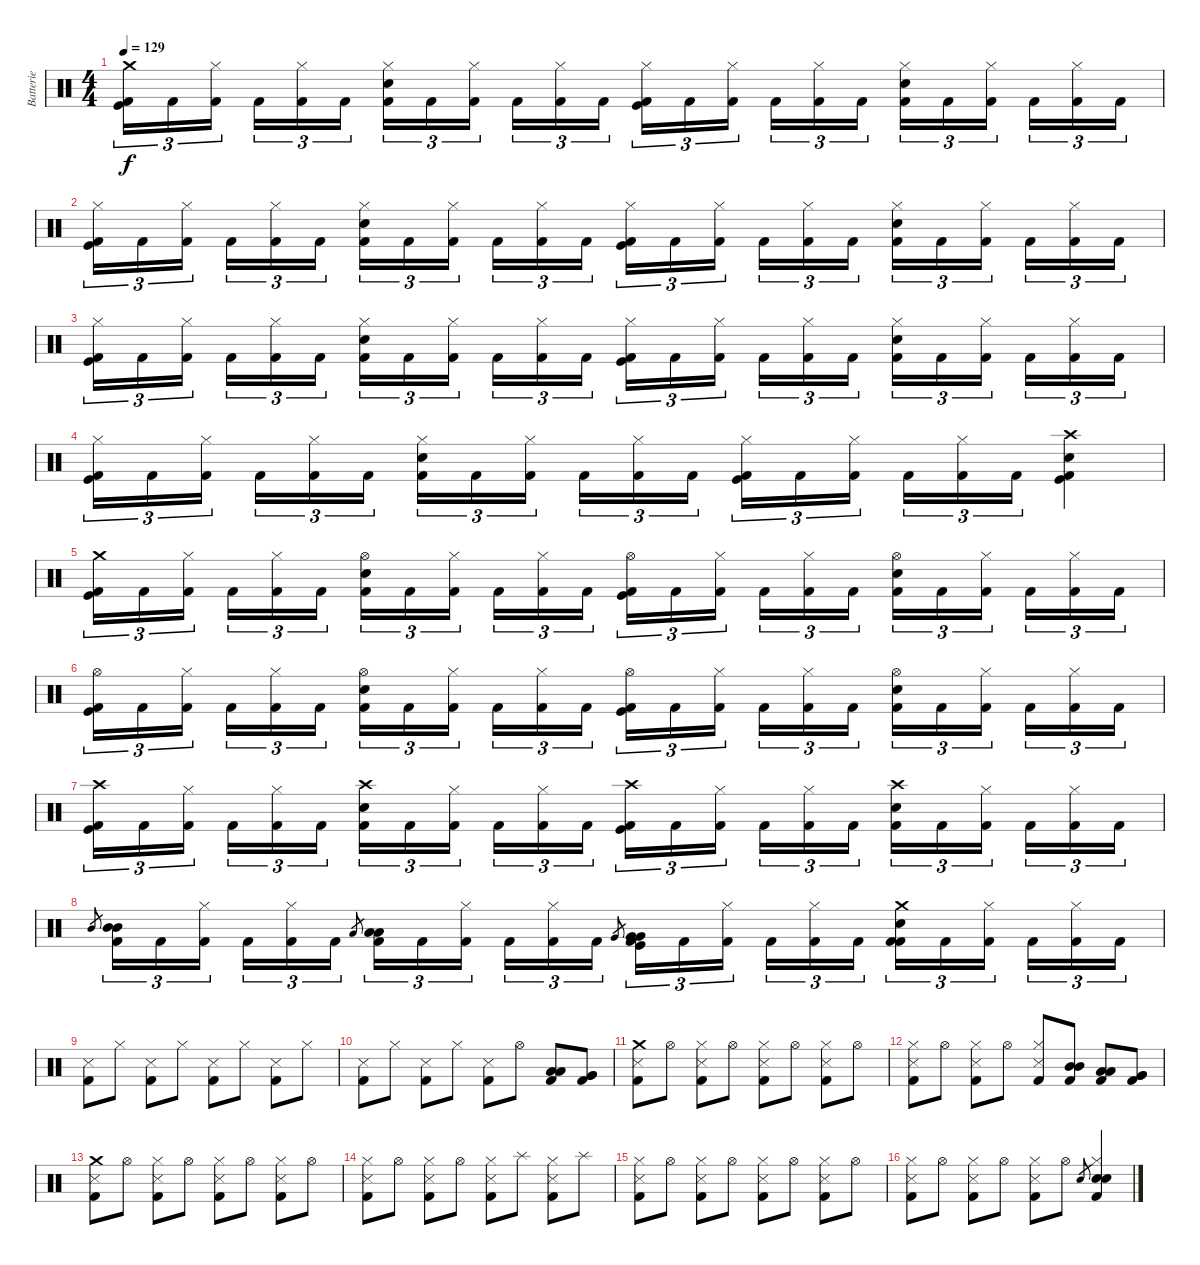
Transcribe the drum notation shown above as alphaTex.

\track ("Batterie" "Batterie") {instrument percussion}
\staff {score}
\articulation defaults
\ts (4 4)
\tempo 129
\clef neutral
\ks c
("Crash medium (hit)" "Kick (hit)" "Kick (hit) 2").16{tu (3 2) dy f} "Kick (hit) 2".16{tu (3 2)} ("Hi-Hat (closed)" "Kick (hit) 2").16{tu (3 2)} "Kick (hit) 2".16{tu (3 2)} ("Hi-Hat (closed)" "Kick (hit) 2").16{tu (3 2)} "Kick (hit) 2".16{tu (3 2)} ("Hi-Hat (closed)" "Electric Snare (hit)" "Kick (hit) 2").16{tu (3 2)} "Kick (hit) 2".16{tu (3 2)} ("Hi-Hat (closed)" "Kick (hit) 2").16{tu (3 2)} "Kick (hit) 2".16{tu (3 2)} ("Hi-Hat (closed)" "Kick (hit) 2").16{tu (3 2)} "Kick (hit) 2".16{tu (3 2)} ("Hi-Hat (closed)" "Kick (hit)" "Kick (hit) 2").16{tu (3 2)} "Kick (hit) 2".16{tu (3 2)} ("Hi-Hat (closed)" "Kick (hit) 2").16{tu (3 2)} "Kick (hit) 2".16{tu (3 2)} ("Hi-Hat (closed)" "Kick (hit) 2").16{tu (3 2)} "Kick (hit) 2".16{tu (3 2)} ("Hi-Hat (closed)" "Electric Snare (hit)" "Kick (hit) 2").16{tu (3 2)} "Kick (hit) 2".16{tu (3 2)} ("Hi-Hat (closed)" "Kick (hit) 2").16{tu (3 2)} "Kick (hit) 2".16{tu (3 2)} ("Hi-Hat (closed)" "Kick (hit) 2").16{tu (3 2)} "Kick (hit) 2".16{tu (3 2)} |
("Hi-Hat (closed)" "Kick (hit)" "Kick (hit) 2").16{tu (3 2)} "Kick (hit) 2".16{tu (3 2)} ("Hi-Hat (closed)" "Kick (hit) 2").16{tu (3 2)} "Kick (hit) 2".16{tu (3 2)} ("Hi-Hat (closed)" "Kick (hit) 2").16{tu (3 2)} "Kick (hit) 2".16{tu (3 2)} ("Hi-Hat (closed)" "Electric Snare (hit)" "Kick (hit) 2").16{tu (3 2)} "Kick (hit) 2".16{tu (3 2)} ("Hi-Hat (closed)" "Kick (hit) 2").16{tu (3 2)} "Kick (hit) 2".16{tu (3 2)} ("Hi-Hat (closed)" "Kick (hit) 2").16{tu (3 2)} "Kick (hit) 2".16{tu (3 2)} ("Hi-Hat (closed)" "Kick (hit)" "Kick (hit) 2").16{tu (3 2)} "Kick (hit) 2".16{tu (3 2)} ("Hi-Hat (closed)" "Kick (hit) 2").16{tu (3 2)} "Kick (hit) 2".16{tu (3 2)} ("Hi-Hat (closed)" "Kick (hit) 2").16{tu (3 2)} "Kick (hit) 2".16{tu (3 2)} ("Hi-Hat (closed)" "Electric Snare (hit)" "Kick (hit) 2").16{tu (3 2)} "Kick (hit) 2".16{tu (3 2)} ("Hi-Hat (closed)" "Kick (hit) 2").16{tu (3 2)} "Kick (hit) 2".16{tu (3 2)} ("Hi-Hat (closed)" "Kick (hit) 2").16{tu (3 2)} "Kick (hit) 2".16{tu (3 2)} |
("Hi-Hat (closed)" "Kick (hit)" "Kick (hit) 2").16{tu (3 2)} "Kick (hit) 2".16{tu (3 2)} ("Hi-Hat (closed)" "Kick (hit) 2").16{tu (3 2)} "Kick (hit) 2".16{tu (3 2)} ("Hi-Hat (closed)" "Kick (hit) 2").16{tu (3 2)} "Kick (hit) 2".16{tu (3 2)} ("Hi-Hat (closed)" "Electric Snare (hit)" "Kick (hit) 2").16{tu (3 2)} "Kick (hit) 2".16{tu (3 2)} ("Hi-Hat (closed)" "Kick (hit) 2").16{tu (3 2)} "Kick (hit) 2".16{tu (3 2)} ("Hi-Hat (closed)" "Kick (hit) 2").16{tu (3 2)} "Kick (hit) 2".16{tu (3 2)} ("Hi-Hat (closed)" "Kick (hit)" "Kick (hit) 2").16{tu (3 2)} "Kick (hit) 2".16{tu (3 2)} ("Hi-Hat (closed)" "Kick (hit) 2").16{tu (3 2)} "Kick (hit) 2".16{tu (3 2)} ("Hi-Hat (closed)" "Kick (hit) 2").16{tu (3 2)} "Kick (hit) 2".16{tu (3 2)} ("Hi-Hat (closed)" "Electric Snare (hit)" "Kick (hit) 2").16{tu (3 2)} "Kick (hit) 2".16{tu (3 2)} ("Hi-Hat (closed)" "Kick (hit) 2").16{tu (3 2)} "Kick (hit) 2".16{tu (3 2)} ("Hi-Hat (closed)" "Kick (hit) 2").16{tu (3 2)} "Kick (hit) 2".16{tu (3 2)} |
("Hi-Hat (closed)" "Kick (hit)" "Kick (hit) 2").16{tu (3 2)} "Kick (hit) 2".16{tu (3 2)} ("Hi-Hat (closed)" "Kick (hit) 2").16{tu (3 2)} "Kick (hit) 2".16{tu (3 2)} ("Hi-Hat (closed)" "Kick (hit) 2").16{tu (3 2)} "Kick (hit) 2".16{tu (3 2)} ("Hi-Hat (closed)" "Electric Snare (hit)" "Kick (hit) 2").16{tu (3 2)} "Kick (hit) 2".16{tu (3 2)} ("Hi-Hat (closed)" "Kick (hit) 2").16{tu (3 2)} "Kick (hit) 2".16{tu (3 2)} ("Hi-Hat (closed)" "Kick (hit) 2").16{tu (3 2)} "Kick (hit) 2".16{tu (3 2)} ("Hi-Hat (closed)" "Kick (hit)" "Kick (hit) 2").16{tu (3 2)} "Kick (hit) 2".16{tu (3 2)} ("Hi-Hat (closed)" "Kick (hit) 2").16{tu (3 2)} "Kick (hit) 2".16{tu (3 2)} ("Hi-Hat (closed)" "Kick (hit) 2").16{tu (3 2)} "Kick (hit) 2".16{tu (3 2)} ("Crash high (hit)" "Electric Snare (hit)" "Kick (hit)" "Kick (hit) 2").4 |
("Crash medium (hit)" "Kick (hit)" "Kick (hit) 2").16{tu (3 2)} "Kick (hit) 2".16{tu (3 2)} ("Hi-Hat (closed)" "Kick (hit) 2").16{tu (3 2)} "Kick (hit) 2".16{tu (3 2)} ("Hi-Hat (closed)" "Kick (hit) 2").16{tu (3 2)} "Kick (hit) 2".16{tu (3 2)} ("Hi-Hat (open)" "Electric Snare (hit)" "Kick (hit) 2").16{tu (3 2)} "Kick (hit) 2".16{tu (3 2)} ("Hi-Hat (closed)" "Kick (hit) 2").16{tu (3 2)} "Kick (hit) 2".16{tu (3 2)} ("Hi-Hat (closed)" "Kick (hit) 2").16{tu (3 2)} "Kick (hit) 2".16{tu (3 2)} ("Hi-Hat (open)" "Kick (hit)" "Kick (hit) 2").16{tu (3 2)} "Kick (hit) 2".16{tu (3 2)} ("Hi-Hat (closed)" "Kick (hit) 2").16{tu (3 2)} "Kick (hit) 2".16{tu (3 2)} ("Hi-Hat (closed)" "Kick (hit) 2").16{tu (3 2)} "Kick (hit) 2".16{tu (3 2)} ("Hi-Hat (open)" "Electric Snare (hit)" "Kick (hit) 2").16{tu (3 2)} "Kick (hit) 2".16{tu (3 2)} ("Hi-Hat (closed)" "Kick (hit) 2").16{tu (3 2)} "Kick (hit) 2".16{tu (3 2)} ("Hi-Hat (closed)" "Kick (hit) 2").16{tu (3 2)} "Kick (hit) 2".16{tu (3 2)} |
("Hi-Hat (open)" "Kick (hit)" "Kick (hit) 2").16{tu (3 2)} "Kick (hit) 2".16{tu (3 2)} ("Hi-Hat (closed)" "Kick (hit) 2").16{tu (3 2)} "Kick (hit) 2".16{tu (3 2)} ("Hi-Hat (closed)" "Kick (hit) 2").16{tu (3 2)} "Kick (hit) 2".16{tu (3 2)} ("Hi-Hat (open)" "Electric Snare (hit)" "Kick (hit) 2").16{tu (3 2)} "Kick (hit) 2".16{tu (3 2)} ("Hi-Hat (closed)" "Kick (hit) 2").16{tu (3 2)} "Kick (hit) 2".16{tu (3 2)} ("Hi-Hat (closed)" "Kick (hit) 2").16{tu (3 2)} "Kick (hit) 2".16{tu (3 2)} ("Hi-Hat (open)" "Kick (hit)" "Kick (hit) 2").16{tu (3 2)} "Kick (hit) 2".16{tu (3 2)} ("Hi-Hat (closed)" "Kick (hit) 2").16{tu (3 2)} "Kick (hit) 2".16{tu (3 2)} ("Hi-Hat (closed)" "Kick (hit) 2").16{tu (3 2)} "Kick (hit) 2".16{tu (3 2)} ("Hi-Hat (open)" "Electric Snare (hit)" "Kick (hit) 2").16{tu (3 2)} "Kick (hit) 2".16{tu (3 2)} ("Hi-Hat (closed)" "Kick (hit) 2").16{tu (3 2)} "Kick (hit) 2".16{tu (3 2)} ("Hi-Hat (closed)" "Kick (hit) 2").16{tu (3 2)} "Kick (hit) 2".16{tu (3 2)} |
("Crash high (hit)" "Kick (hit)" "Kick (hit) 2").16{tu (3 2)} "Kick (hit) 2".16{tu (3 2)} ("Hi-Hat (closed)" "Kick (hit) 2").16{tu (3 2)} "Kick (hit) 2".16{tu (3 2)} ("Hi-Hat (closed)" "Kick (hit) 2").16{tu (3 2)} "Kick (hit) 2".16{tu (3 2)} ("Crash high (hit)" "Electric Snare (hit)" "Kick (hit) 2").16{tu (3 2)} "Kick (hit) 2".16{tu (3 2)} ("Hi-Hat (closed)" "Kick (hit) 2").16{tu (3 2)} "Kick (hit) 2".16{tu (3 2)} ("Hi-Hat (closed)" "Kick (hit) 2").16{tu (3 2)} "Kick (hit) 2".16{tu (3 2)} ("Crash high (hit)" "Kick (hit)" "Kick (hit) 2").16{tu (3 2)} "Kick (hit) 2".16{tu (3 2)} ("Hi-Hat (closed)" "Kick (hit) 2").16{tu (3 2)} "Kick (hit) 2".16{tu (3 2)} ("Hi-Hat (closed)" "Kick (hit) 2").16{tu (3 2)} "Kick (hit) 2".16{tu (3 2)} ("Crash high (hit)" "Electric Snare (hit)" "Kick (hit) 2").16{tu (3 2)} "Kick (hit) 2".16{tu (3 2)} ("Hi-Hat (closed)" "Kick (hit) 2").16{tu (3 2)} "Kick (hit) 2".16{tu (3 2)} ("Hi-Hat (closed)" "Kick (hit) 2").16{tu (3 2)} "Kick (hit) 2".16{tu (3 2)} |
"Mid Tom (hit)".8{gr} ("Mid Tom (hit)" "Mid Tom (hit)" "Kick (hit) 2").16{tu (3 2)} "Kick (hit) 2".16{tu (3 2)} ("Hi-Hat (closed)" "Kick (hit) 2").16{tu (3 2)} "Kick (hit) 2".16{tu (3 2)} ("Hi-Hat (closed)" "Kick (hit) 2").16{tu (3 2)} "Kick (hit) 2".16{tu (3 2)} "Low Tom (hit)".8{gr} ("Low Tom (hit)" "Low Tom (hit)" "Kick (hit) 2").16{tu (3 2)} "Kick (hit) 2".16{tu (3 2)} ("Hi-Hat (closed)" "Kick (hit) 2").16{tu (3 2)} "Kick (hit) 2".16{tu (3 2)} ("Hi-Hat (closed)" "Kick (hit) 2").16{tu (3 2)} "Kick (hit) 2".16{tu (3 2)} "Very Low Tom (hit)".8{gr} ("Very Low Tom (hit)" "Very Low Tom (hit)" "Kick (hit)" "Kick (hit) 2").16{tu (3 2)} "Kick (hit) 2".16{tu (3 2)} ("Hi-Hat (closed)" "Kick (hit) 2").16{tu (3 2)} "Kick (hit) 2".16{tu (3 2)} ("Hi-Hat (closed)" "Kick (hit) 2").16{tu (3 2)} "Kick (hit) 2".16{tu (3 2)} ("Crash medium (hit)" "Electric Snare (hit)" "Kick (hit) 2" "Kick (hit) 2").16{tu (3 2)} "Kick (hit) 2".16{tu (3 2)} ("Hi-Hat (closed)" "Kick (hit) 2").16{tu (3 2)} "Kick (hit) 2".16{tu (3 2)} ("Hi-Hat (closed)" "Kick (hit) 2").16{tu (3 2)} "Kick (hit) 2".16{tu (3 2)} |
("Snare (side stick) 3" "Kick (hit) 2").8 "Hi-Hat (closed)".8 ("Snare (side stick) 3" "Kick (hit) 2").8 "Hi-Hat (closed)".8 ("Snare (side stick) 3" "Kick (hit) 2").8 "Hi-Hat (closed)".8 ("Snare (side stick) 3" "Kick (hit) 2").8 "Hi-Hat (closed)".8 |
("Snare (side stick) 3" "Kick (hit) 2").8 "Hi-Hat (closed)".8 ("Snare (side stick) 3" "Kick (hit) 2").8 "Hi-Hat (closed)".8 ("Snare (side stick) 3" "Kick (hit) 2").8 "Hi-Hat (open)".8 ("Low Tom (hit)" "Low Tom (hit)" "Kick (hit) 2").8 ("Very Low Tom (hit)" "Very Low Tom (hit)" "Kick (hit) 2").8 |
("Crash medium (hit)" "Snare (side stick) 3" "Kick (hit) 2").8 "Hi-Hat (open)".8 ("Hi-Hat (closed)" "Snare (side stick) 3" "Kick (hit) 2").8 "Hi-Hat (open)".8 ("Hi-Hat (closed)" "Snare (side stick) 3" "Kick (hit) 2").8 "Hi-Hat (open)".8 ("Hi-Hat (closed)" "Snare (side stick) 3" "Kick (hit) 2").8 "Hi-Hat (open)".8 |
("Hi-Hat (closed)" "Snare (side stick) 3" "Kick (hit) 2").8 "Hi-Hat (open)".8 ("Hi-Hat (closed)" "Snare (side stick) 3" "Kick (hit) 2").8 "Hi-Hat (open)".8 ("Hi-Hat (closed)" "Snare (side stick) 3" "Kick (hit) 2").8 ("Mid Tom (hit)" "Mid Tom (hit)" "Kick (hit) 2").8 ("Low Tom (hit)" "Low Tom (hit)" "Kick (hit) 2").8 ("Very Low Tom (hit)" "Very Low Tom (hit)" "Kick (hit) 2").8 |
("Crash medium (hit)" "Snare (side stick) 3" "Kick (hit) 2").8 "Hi-Hat (open)".8 ("Hi-Hat (closed)" "Snare (side stick) 3" "Kick (hit) 2").8 "Hi-Hat (open)".8 ("Hi-Hat (closed)" "Snare (side stick) 3" "Kick (hit) 2").8 "Hi-Hat (open)".8 ("Hi-Hat (closed)" "Snare (side stick) 3" "Kick (hit) 2").8 "Hi-Hat (open)".8 |
("Hi-Hat (closed)" "Snare (side stick) 3" "Kick (hit) 2").8 "Hi-Hat (open)".8 ("Hi-Hat (closed)" "Snare (side stick) 3" "Kick (hit) 2").8 "Hi-Hat (open)".8 ("Hi-Hat (closed)" "Snare (side stick) 3" "Kick (hit) 2").8 "Splash (hit)".8 ("Hi-Hat (closed)" "Snare (side stick) 3" "Kick (hit) 2").8 "Splash (hit)".8 |
("Hi-Hat (closed)" "Snare (side stick) 3" "Kick (hit) 2").8 "Hi-Hat (open)".8 ("Hi-Hat (closed)" "Snare (side stick) 3" "Kick (hit) 2").8 "Hi-Hat (open)".8 ("Hi-Hat (closed)" "Snare (side stick) 3" "Kick (hit) 2").8 "Hi-Hat (open)".8 ("Hi-Hat (closed)" "Snare (side stick) 3" "Kick (hit) 2").8 "Hi-Hat (open)".8 |
("Hi-Hat (closed)" "Snare (side stick) 3" "Kick (hit) 2").8 "Hi-Hat (open)".8 ("Hi-Hat (closed)" "Snare (side stick) 3" "Kick (hit) 2").8 "Hi-Hat (open)".8 ("Hi-Hat (closed)" "Snare (side stick) 3" "Kick (hit) 2").8 "Hi-Hat (open)".8 "Electric Snare (hit)".8{gr} ("Hi-Hat (closed)" "Electric Snare (hit)" "Electric Snare (hit)" "Kick (hit) 2").4
